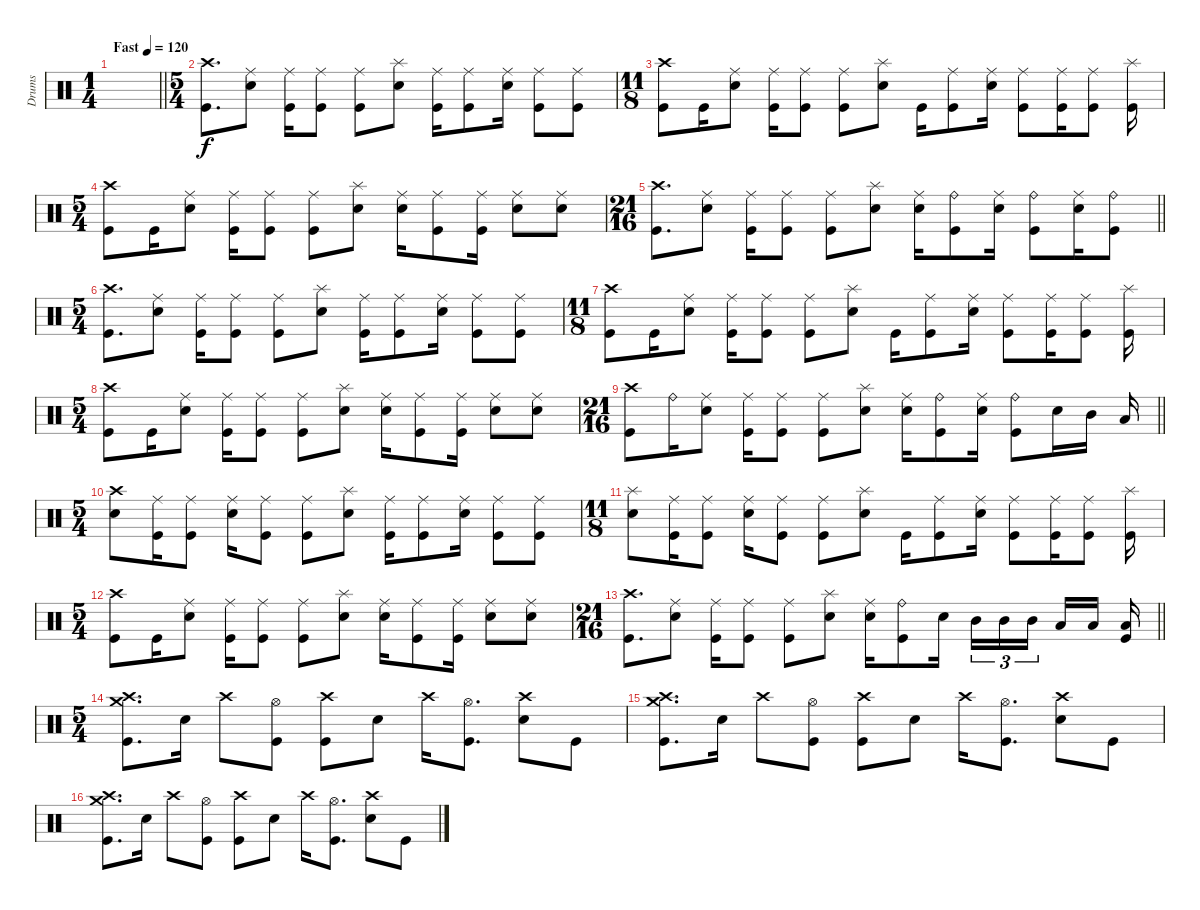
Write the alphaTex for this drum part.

\track ("Drums" "Drums") {instrument percussion}
\staff
\articulation defaults
\ts (1 4)
\tempo (120 "Fast")
\clef neutral
\barLineRight lightlight
\ks c
|
\ts (5 4)
("Crash high (hit)" "Kick (hit)").8{d} ("Ride (middle)" "Electric Snare (hit)").8 ("Ride (middle)" "Kick (hit)").16 ("Ride (middle)" "Kick (hit)").8 ("Ride (middle)" "Kick (hit)").8 ("Splash (hit)" "Electric Snare (hit)").8 ("Ride (middle)" "Kick (hit)").16 ("Ride (middle)" "Kick (hit)").8 ("Ride (middle)" "Electric Snare (hit)").16 ("Ride (middle)" "Kick (hit)").8 ("Ride (middle)" "Kick (hit)").8 |
\ts (11 8)
("Crash high (hit)" "Kick (hit)").8 "Kick (hit)".16 ("Ride (middle)" "Electric Snare (hit)").8 ("Ride (middle)" "Kick (hit)").16 ("Ride (middle)" "Kick (hit)").8 ("Ride (middle)" "Kick (hit)").8 ("Splash (hit)" "Electric Snare (hit)").8 "Kick (hit)".16 ("Ride (middle)" "Kick (hit)").8 ("Ride (middle)" "Electric Snare (hit)").16 ("Ride (middle)" "Kick (hit)").8 ("Ride (middle)" "Kick (hit)").16 ("Ride (middle)" "Kick (hit)").8 ("Splash (hit)" "Kick (hit)").16 |
\ts (5 4)
("Crash high (hit)" "Kick (hit)").8 "Kick (hit)".16 ("Ride (middle)" "Electric Snare (hit)").8 ("Ride (middle)" "Kick (hit)").16 ("Ride (middle)" "Kick (hit)").8 ("Ride (middle)" "Kick (hit)").8 ("Splash (hit)" "Electric Snare (hit)").8 ("Ride (middle)" "Electric Snare (hit)").16 ("Ride (middle)" "Kick (hit)").8 ("Ride (middle)" "Kick (hit)").16 ("Ride (middle)" "Electric Snare (hit)").8 ("Ride (middle)" "Electric Snare (hit)").8 |
\ts (21 16)
\barLineRight lightlight
("Crash high (hit)" "Kick (hit)").8{d} ("Ride (middle)" "Electric Snare (hit)").8 ("Ride (middle)" "Kick (hit)").16 ("Ride (middle)" "Kick (hit)").8 ("Ride (middle)" "Kick (hit)").8 ("Splash (hit)" "Electric Snare (hit)").8 ("Ride (middle)" "Electric Snare (hit)").16 ("Ride (bell)" "Kick (hit)").8 ("Ride (middle)" "Electric Snare (hit)").16 ("Ride (bell)" "Kick (hit)").8 ("Ride (middle)" "Electric Snare (hit)").16 ("Ride (bell)" "Kick (hit)").8 |
\ts (5 4)
("Crash high (hit)" "Kick (hit)").8{d} ("Ride (middle)" "Electric Snare (hit)").8 ("Ride (middle)" "Kick (hit)").16 ("Ride (middle)" "Kick (hit)").8 ("Ride (middle)" "Kick (hit)").8 ("Splash (hit)" "Electric Snare (hit)").8 ("Ride (middle)" "Kick (hit)").16 ("Ride (middle)" "Kick (hit)").8 ("Ride (middle)" "Electric Snare (hit)").16 ("Ride (middle)" "Kick (hit)").8 ("Ride (middle)" "Kick (hit)").8 |
\ts (11 8)
("Crash high (hit)" "Kick (hit)").8 "Kick (hit)".16 ("Ride (middle)" "Electric Snare (hit)").8 ("Ride (middle)" "Kick (hit)").16 ("Ride (middle)" "Kick (hit)").8 ("Ride (middle)" "Kick (hit)").8 ("Splash (hit)" "Electric Snare (hit)").8 "Kick (hit)".16 ("Ride (middle)" "Kick (hit)").8 ("Ride (middle)" "Electric Snare (hit)").16 ("Ride (middle)" "Kick (hit)").8 ("Ride (middle)" "Kick (hit)").16 ("Ride (middle)" "Kick (hit)").8 ("Splash (hit)" "Kick (hit)").16 |
\ts (5 4)
("Crash high (hit)" "Kick (hit)").8 "Kick (hit)".16 ("Ride (middle)" "Electric Snare (hit)").8 ("Ride (middle)" "Kick (hit)").16 ("Ride (middle)" "Kick (hit)").8 ("Ride (middle)" "Kick (hit)").8 ("Splash (hit)" "Electric Snare (hit)").8 ("Ride (middle)" "Electric Snare (hit)").16 ("Ride (middle)" "Kick (hit)").8 ("Ride (middle)" "Kick (hit)").16 ("Ride (middle)" "Electric Snare (hit)").8 ("Ride (middle)" "Electric Snare (hit)").8 |
\ts (21 16)
\barLineRight lightlight
("Crash high (hit)" "Kick (hit)").8 "Ride (bell)".16 ("Ride (middle)" "Electric Snare (hit)").8 ("Ride (middle)" "Kick (hit)").16 ("Ride (middle)" "Kick (hit)").8 ("Ride (middle)" "Kick (hit)").8 ("Splash (hit)" "Electric Snare (hit)").8 ("Ride (middle)" "Electric Snare (hit)").16 ("Ride (bell)" "Kick (hit)").8 ("Ride (middle)" "Electric Snare (hit)").16 ("Ride (bell)" "Kick (hit)").8 "Electric Snare (hit)".16 "Mid Tom (hit)".16 "Low Tom (hit)".16 |
\ts (5 4)
("Crash high (hit)" "Electric Snare (hit)").8 ("Ride (middle)" "Kick (hit)").16 ("Ride (middle)" "Kick (hit)").8 ("Ride (middle)" "Electric Snare (hit)").16 ("Ride (middle)" "Kick (hit)").8 ("Ride (middle)" "Kick (hit)").8 ("Splash (hit)" "Electric Snare (hit)").8 ("Ride (middle)" "Kick (hit)").16 ("Ride (middle)" "Kick (hit)").8 ("Ride (middle)" "Electric Snare (hit)").16 ("Ride (middle)" "Kick (hit)").8 ("Ride (middle)" "Kick (hit)").8 |
\ts (11 8)
("Splash (hit)" "Electric Snare (hit)").8 ("Ride (middle)" "Kick (hit)").16 ("Ride (middle)" "Kick (hit)").8 ("Ride (middle)" "Electric Snare (hit)").16 ("Ride (middle)" "Kick (hit)").8 ("Ride (middle)" "Kick (hit)").8 ("Splash (hit)" "Electric Snare (hit)").8 "Kick (hit)".16 ("Ride (middle)" "Kick (hit)").8 ("Ride (middle)" "Electric Snare (hit)").16 ("Ride (middle)" "Kick (hit)").8 ("Ride (middle)" "Kick (hit)").16 ("Ride (middle)" "Kick (hit)").8 ("Splash (hit)" "Kick (hit)").16 |
\ts (5 4)
("Crash high (hit)" "Kick (hit)").8 "Kick (hit)".16 ("Ride (middle)" "Electric Snare (hit)").8 ("Ride (middle)" "Kick (hit)").16 ("Ride (middle)" "Kick (hit)").8 ("Ride (middle)" "Kick (hit)").8 ("Splash (hit)" "Electric Snare (hit)").8 ("Ride (middle)" "Electric Snare (hit)").16 ("Ride (middle)" "Kick (hit)").8 ("Ride (middle)" "Kick (hit)").16 ("Ride (middle)" "Electric Snare (hit)").8 ("Ride (middle)" "Electric Snare (hit)").8 |
\ts (21 16)
\barLineRight lightlight
("Crash high (hit)" "Kick (hit)").8{d} ("Ride (middle)" "Electric Snare (hit)").8 ("Ride (middle)" "Kick (hit)").16 ("Ride (middle)" "Kick (hit)").8 ("Ride (middle)" "Kick (hit)").8 ("Splash (hit)" "Electric Snare (hit)").8 ("Ride (middle)" "Electric Snare (hit)").16 ("Ride (bell)" "Kick (hit)").8 "Electric Snare (hit)".16{beam splitsecondary} "Mid Tom (hit)".16{tu (3 2)} "Mid Tom (hit)".16{tu (3 2)} "Mid Tom (hit)".16{tu (3 2)} "Low Tom (hit)".16 "Low Tom (hit)".16 ("Low Tom (hit)" "Kick (hit)").16 |
\ts (5 4)
("Crash high (hit)" "Crash medium (hit)" "Kick (hit)").8{d} "Electric Snare (hit)".16 "Crash high (hit)".8 ("Hi-Hat (open)" "Kick (hit)").8 ("Crash high (hit)" "Kick (hit)").8 "Electric Snare (hit)".8 "Crash high (hit)".16 ("Hi-Hat (open)" "Kick (hit)").8{d} ("Crash high (hit)" "Electric Snare (hit)").8 "Kick (hit)".8 |
("Crash high (hit)" "Crash medium (hit)" "Kick (hit)").8{d} "Electric Snare (hit)".16 "Crash high (hit)".8 ("Hi-Hat (open)" "Kick (hit)").8 ("Crash high (hit)" "Kick (hit)").8 "Electric Snare (hit)".8 "Crash high (hit)".16 ("Hi-Hat (open)" "Kick (hit)").8{d} ("Crash high (hit)" "Electric Snare (hit)").8 "Kick (hit)".8 |
("Crash high (hit)" "Crash medium (hit)" "Kick (hit)").8{d} "Electric Snare (hit)".16 "Crash high (hit)".8 ("Hi-Hat (open)" "Kick (hit)").8 ("Crash high (hit)" "Kick (hit)").8 "Electric Snare (hit)".8 "Crash high (hit)".16 ("Hi-Hat (open)" "Kick (hit)").8{d} ("Crash high (hit)" "Electric Snare (hit)").8 "Kick (hit)".8
